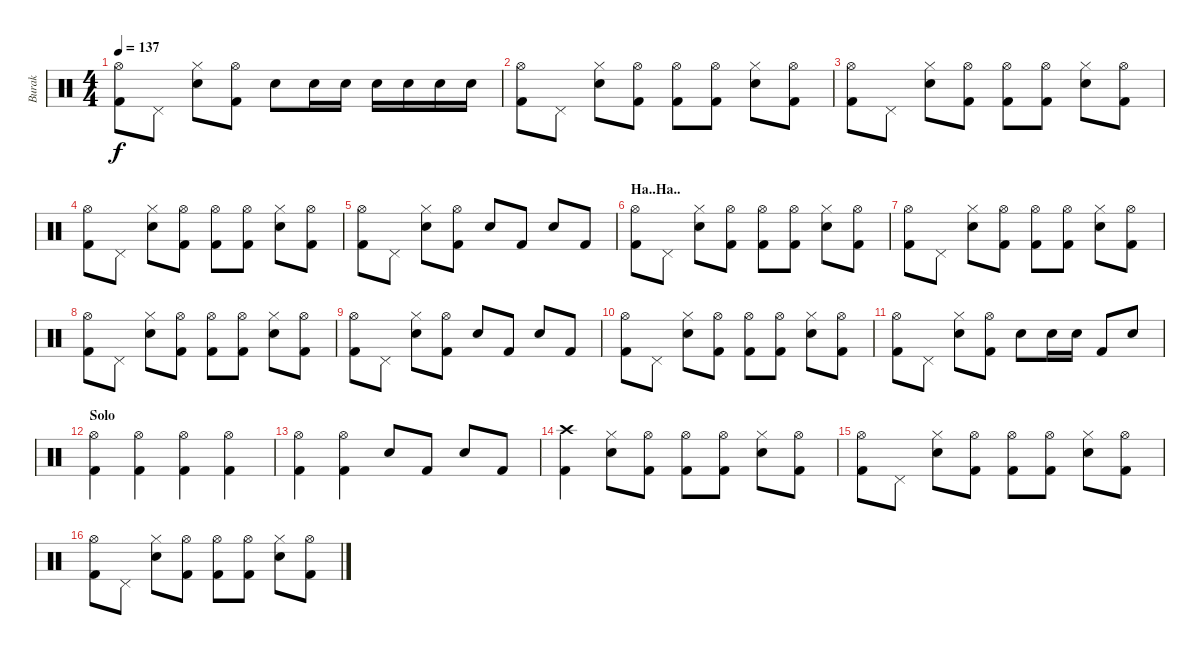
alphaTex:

\track ("Burak" "Burak") {instrument percussion}
\staff {score}
\articulation defaults
\ts (4 4)
\tempo 137
\clef neutral
\ks c
("Kick (hit) 2" "Hi-Hat (open)").8{dy f} "Pedal Hi-Hat (hit)".8 ("Electric Snare (hit)" "Hi-Hat (closed)").8 ("Kick (hit) 2" "Hi-Hat (open)").8 "Electric Snare (hit)".8 "Electric Snare (hit)".16 "Electric Snare (hit)".16 "Electric Snare (hit)".16 "Electric Snare (hit)".16 "Electric Snare (hit)".16 "Electric Snare (hit)".16 |
("Kick (hit) 2" "Hi-Hat (open)").8 "Pedal Hi-Hat (hit)".8 ("Electric Snare (hit)" "Hi-Hat (closed)").8 ("Kick (hit) 2" "Hi-Hat (open)").8 ("Kick (hit) 2" "Hi-Hat (open)").8 ("Kick (hit) 2" "Hi-Hat (open)").8 ("Electric Snare (hit)" "Hi-Hat (closed)").8 ("Kick (hit) 2" "Hi-Hat (open)").8 |
("Kick (hit) 2" "Hi-Hat (open)").8 "Pedal Hi-Hat (hit)".8 ("Electric Snare (hit)" "Hi-Hat (closed)").8 ("Kick (hit) 2" "Hi-Hat (open)").8 ("Kick (hit) 2" "Hi-Hat (open)").8 ("Kick (hit) 2" "Hi-Hat (open)").8 ("Electric Snare (hit)" "Hi-Hat (closed)").8 ("Kick (hit) 2" "Hi-Hat (open)").8 |
("Kick (hit) 2" "Hi-Hat (open)").8 "Pedal Hi-Hat (hit)".8 ("Electric Snare (hit)" "Hi-Hat (closed)").8 ("Kick (hit) 2" "Hi-Hat (open)").8 ("Kick (hit) 2" "Hi-Hat (open)").8 ("Kick (hit) 2" "Hi-Hat (open)").8 ("Electric Snare (hit)" "Hi-Hat (closed)").8 ("Kick (hit) 2" "Hi-Hat (open)").8 |
("Kick (hit) 2" "Hi-Hat (open)").8 "Pedal Hi-Hat (hit)".8 ("Electric Snare (hit)" "Hi-Hat (closed)").8 ("Kick (hit) 2" "Hi-Hat (open)").8 "Electric Snare (hit)".8 "Kick (hit) 2".8 "Electric Snare (hit)".8 "Kick (hit) 2".8 |
\section ("" "Ha..Ha..")
("Kick (hit) 2" "Hi-Hat (open)").8 "Pedal Hi-Hat (hit)".8 ("Electric Snare (hit)" "Hi-Hat (closed)").8 ("Kick (hit) 2" "Hi-Hat (open)").8 ("Kick (hit) 2" "Hi-Hat (open)").8 ("Kick (hit) 2" "Hi-Hat (open)").8 ("Electric Snare (hit)" "Hi-Hat (closed)").8 ("Kick (hit) 2" "Hi-Hat (open)").8 |
("Kick (hit) 2" "Hi-Hat (open)").8 "Pedal Hi-Hat (hit)".8 ("Electric Snare (hit)" "Hi-Hat (closed)").8 ("Kick (hit) 2" "Hi-Hat (open)").8 ("Kick (hit) 2" "Hi-Hat (open)").8 ("Kick (hit) 2" "Hi-Hat (open)").8 ("Electric Snare (hit)" "Hi-Hat (closed)").8 ("Kick (hit) 2" "Hi-Hat (open)").8 |
("Kick (hit) 2" "Hi-Hat (open)").8 "Pedal Hi-Hat (hit)".8 ("Electric Snare (hit)" "Hi-Hat (closed)").8 ("Kick (hit) 2" "Hi-Hat (open)").8 ("Kick (hit) 2" "Hi-Hat (open)").8 ("Kick (hit) 2" "Hi-Hat (open)").8 ("Electric Snare (hit)" "Hi-Hat (closed)").8 ("Kick (hit) 2" "Hi-Hat (open)").8 |
("Kick (hit) 2" "Hi-Hat (open)").8 "Pedal Hi-Hat (hit)".8 ("Electric Snare (hit)" "Hi-Hat (closed)").8 ("Kick (hit) 2" "Hi-Hat (open)").8 "Electric Snare (hit)".8 "Kick (hit) 2".8 "Electric Snare (hit)".8 "Kick (hit) 2".8 |
("Kick (hit) 2" "Hi-Hat (open)").8 "Pedal Hi-Hat (hit)".8 ("Electric Snare (hit)" "Hi-Hat (closed)").8 ("Kick (hit) 2" "Hi-Hat (open)").8 ("Kick (hit) 2" "Hi-Hat (open)").8 ("Kick (hit) 2" "Hi-Hat (open)").8 ("Electric Snare (hit)" "Hi-Hat (closed)").8 ("Kick (hit) 2" "Hi-Hat (open)").8 |
("Kick (hit) 2" "Hi-Hat (open)").8 "Pedal Hi-Hat (hit)".8 ("Electric Snare (hit)" "Hi-Hat (closed)").8 ("Kick (hit) 2" "Hi-Hat (open)").8 "Electric Snare (hit)".8 "Electric Snare (hit)".16 "Electric Snare (hit)".16 "Kick (hit) 2".8 "Electric Snare (hit)".8 |
\section ("" "Solo")
("Kick (hit) 2" "Hi-Hat (open)").4 ("Kick (hit) 2" "Hi-Hat (open)").4 ("Kick (hit) 2" "Hi-Hat (open)").4 ("Kick (hit) 2" "Hi-Hat (open)").4 |
("Kick (hit) 2" "Hi-Hat (open)").4 ("Kick (hit) 2" "Hi-Hat (open)").4 "Electric Snare (hit)".8 "Kick (hit) 2".8 "Electric Snare (hit)".8 "Kick (hit) 2".8 |
("Kick (hit) 2" "Crash high (hit)").4 ("Electric Snare (hit)" "Hi-Hat (closed)").8 ("Kick (hit) 2" "Hi-Hat (open)").8 ("Kick (hit) 2" "Hi-Hat (open)").8 ("Kick (hit) 2" "Hi-Hat (open)").8 ("Electric Snare (hit)" "Hi-Hat (closed)").8 ("Kick (hit) 2" "Hi-Hat (open)").8 |
("Kick (hit) 2" "Hi-Hat (open)").8 "Pedal Hi-Hat (hit)".8 ("Electric Snare (hit)" "Hi-Hat (closed)").8 ("Kick (hit) 2" "Hi-Hat (open)").8 ("Kick (hit) 2" "Hi-Hat (open)").8 ("Kick (hit) 2" "Hi-Hat (open)").8 ("Electric Snare (hit)" "Hi-Hat (closed)").8 ("Kick (hit) 2" "Hi-Hat (open)").8 |
("Kick (hit) 2" "Hi-Hat (open)").8 "Pedal Hi-Hat (hit)".8 ("Electric Snare (hit)" "Hi-Hat (closed)").8 ("Kick (hit) 2" "Hi-Hat (open)").8 ("Kick (hit) 2" "Hi-Hat (open)").8 ("Kick (hit) 2" "Hi-Hat (open)").8 ("Electric Snare (hit)" "Hi-Hat (closed)").8 ("Kick (hit) 2" "Hi-Hat (open)").8
